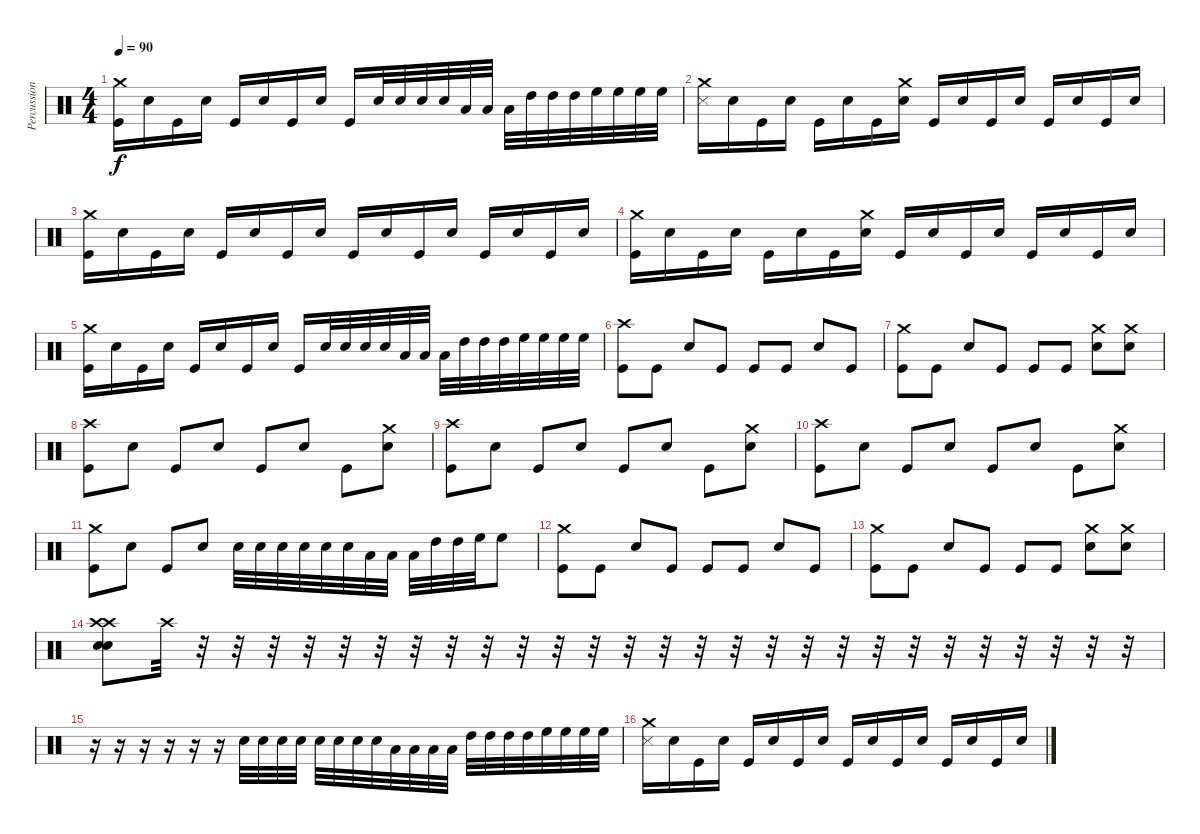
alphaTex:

\track ("Percussion" "Percussion") {instrument percussion}
\staff {score}
\articulation defaults
\ts (4 4)
\tempo 90
\clef neutral
\ks c
("Crash medium (hit)" "Kick (hit)").16{dy f} "Electric Snare (hit)".16 "Kick (hit)".16 "Electric Snare (hit)".16 "Kick (hit)".16 "Electric Snare (hit)".16 "Kick (hit)".16 "Electric Snare (hit)".16 "Kick (hit)".16 "Snare (hit) 2".32 "Snare (hit) 2".32 "Electric Snare (hit)".32 "Electric Snare (hit)".32 "Low Tom (hit)".32 "Low Tom (hit)".32 "Low Tom (hit)".32 "High Tom (hit)".32 "High Tom (hit)".32 "High Tom (hit)".32 "High Floor Tom (hit)".32 "High Floor Tom (hit)".32 "High Floor Tom (hit)".32 "High Floor Tom (hit)".32 |
("Crash medium (hit)" "Metronome (hit)").16 "Electric Snare (hit)".16 "Kick (hit)".16 "Electric Snare (hit)".16 "Kick (hit)".16 "Electric Snare (hit)".16 "Kick (hit)".16 ("Crash medium (hit)" "Electric Snare (hit)").16 "Kick (hit)".16 "Electric Snare (hit)".16 "Kick (hit)".16 "Electric Snare (hit)".16 "Kick (hit)".16 "Electric Snare (hit)".16 "Kick (hit)".16 "Electric Snare (hit)".16 |
("Crash medium (hit)" "Kick (hit)").16 "Electric Snare (hit)".16 "Kick (hit)".16 "Electric Snare (hit)".16 "Kick (hit)".16 "Electric Snare (hit)".16 "Kick (hit)".16 "Electric Snare (hit)".16 "Kick (hit)".16 "Electric Snare (hit)".16 "Kick (hit)".16 "Electric Snare (hit)".16 "Kick (hit)".16 "Electric Snare (hit)".16 "Kick (hit)".16 "Electric Snare (hit)".16 |
("Crash medium (hit)" "Kick (hit)").16 "Electric Snare (hit)".16 "Kick (hit)".16 "Electric Snare (hit)".16 "Kick (hit)".16 "Electric Snare (hit)".16 "Kick (hit)".16 ("Crash medium (hit)" "Electric Snare (hit)").16 "Kick (hit)".16 "Electric Snare (hit)".16 "Kick (hit)".16 "Electric Snare (hit)".16 "Kick (hit)".16 "Electric Snare (hit)".16 "Kick (hit)".16 "Electric Snare (hit)".16 |
("Crash medium (hit)" "Kick (hit)").16 "Electric Snare (hit)".16 "Kick (hit)".16 "Electric Snare (hit)".16 "Kick (hit)".16 "Electric Snare (hit)".16 "Kick (hit)".16 "Electric Snare (hit)".16 "Kick (hit)".16 "Snare (hit) 2".32 "Snare (hit) 2".32 "Electric Snare (hit)".32 "Electric Snare (hit)".32 "Low Tom (hit)".32 "Low Tom (hit)".32 "Low Tom (hit)".32 "High Tom (hit)".32 "High Tom (hit)".32 "High Tom (hit)".32 "High Floor Tom (hit)".32 "High Floor Tom (hit)".32 "High Floor Tom (hit)".32 "High Floor Tom (hit)".32 |
("Kick (hit)" "Crash high (hit)").8 "Kick (hit)".8 "Electric Snare (hit)".8 "Kick (hit)".8 "Kick (hit)".8 "Kick (hit)".8 "Electric Snare (hit)".8 "Kick (hit)".8 |
("Kick (hit)" "Crash medium (hit)").8 "Kick (hit)".8 "Electric Snare (hit)".8 "Kick (hit)".8 "Kick (hit)".8 "Kick (hit)".8 ("Crash medium (hit)" "Electric Snare (hit)").8 ("Crash medium (hit)" "Electric Snare (hit)").8 |
("Crash high (hit)" "Kick (hit)").8 "Electric Snare (hit)".8 "Kick (hit)".8 "Electric Snare (hit)".8 "Kick (hit)".8 "Electric Snare (hit)".8 "Kick (hit)".8 ("Crash medium (hit)" "Electric Snare (hit)").8 |
("Crash high (hit)" "Kick (hit)").8 "Electric Snare (hit)".8 "Kick (hit)".8 "Electric Snare (hit)".8 "Kick (hit)".8 "Electric Snare (hit)".8 "Kick (hit)".8 ("Crash medium (hit)" "Electric Snare (hit)").8 |
("Crash high (hit)" "Kick (hit)").8 "Electric Snare (hit)".8 "Kick (hit)".8 "Electric Snare (hit)".8 "Kick (hit)".8 "Electric Snare (hit)".8 "Kick (hit)".8 ("Crash medium (hit)" "Electric Snare (hit)").8 |
("Kick (hit)" "Crash medium (hit)").8 "Electric Snare (hit)".8 "Kick (hit)".8 "Electric Snare (hit)".8 "Electric Snare (hit)".32 "Electric Snare (hit)".32 "Electric Snare (hit)".32 "Snare (hit) 2".32 "Snare (hit) 2".32 "Snare (hit) 2".32 "Low Tom (hit)".32 "Low Tom (hit)".32 "Low Tom (hit)".32 "High Tom (hit)".32 "High Tom (hit)".32 "High Floor Tom (hit)".32 "High Floor Tom (hit)".8 |
("Kick (hit)" "Crash medium (hit)").8 "Kick (hit)".8 "Electric Snare (hit)".8 "Kick (hit)".8 "Kick (hit)".8 "Kick (hit)".8 "Electric Snare (hit)".8 "Kick (hit)".8 |
("Kick (hit)" "Crash medium (hit)").8 "Kick (hit)".8 "Electric Snare (hit)".8 "Kick (hit)".8 "Kick (hit)".8 "Kick (hit)".8 ("Crash medium (hit)" "Electric Snare (hit)").8 ("Crash medium (hit)" "Electric Snare (hit)").8 |
("Crash high (hit)" "Crash high (hit)" "Electric Snare (hit)" "Electric Snare (hit)").8 "Crash high (hit)".32 r.32 r.32 r.32 r.32 r.32 r.32 r.32 r.32 r.32 r.32 r.32 r.32 r.32 r.32 r.32 r.32 r.32 r.32 r.32 r.32 r.32 r.32 r.32 r.32 r.32 r.32 r.32 |
r.16 r.16 r.16 r.16 r.16 r.16 "Snare (hit) 2".32 "Snare (hit) 2".32 "Snare (hit) 2".32 "Snare (hit) 2".32 "Electric Snare (hit)".32 "Electric Snare (hit)".32 "Electric Snare (hit)".32 "Electric Snare (hit)".32 "Low Tom (hit)".32 "Low Tom (hit)".32 "Low Tom (hit)".32 "Low Tom (hit)".32 "High Tom (hit)".32 "High Tom (hit)".32 "High Tom (hit)".32 "High Tom (hit)".32 "High Floor Tom (hit)".32 "High Floor Tom (hit)".32 "High Floor Tom (hit)".32 "High Floor Tom (hit)".32 |
("Crash medium (hit)" "Metronome (hit)").16 "Electric Snare (hit)".16 "Kick (hit)".16 "Electric Snare (hit)".16 "Kick (hit)".16 "Electric Snare (hit)".16 "Kick (hit)".16 "Electric Snare (hit)".16 "Kick (hit)".16 "Electric Snare (hit)".16 "Kick (hit)".16 "Electric Snare (hit)".16 "Kick (hit)".16 "Electric Snare (hit)".16 "Kick (hit)".16 "Electric Snare (hit)".16
